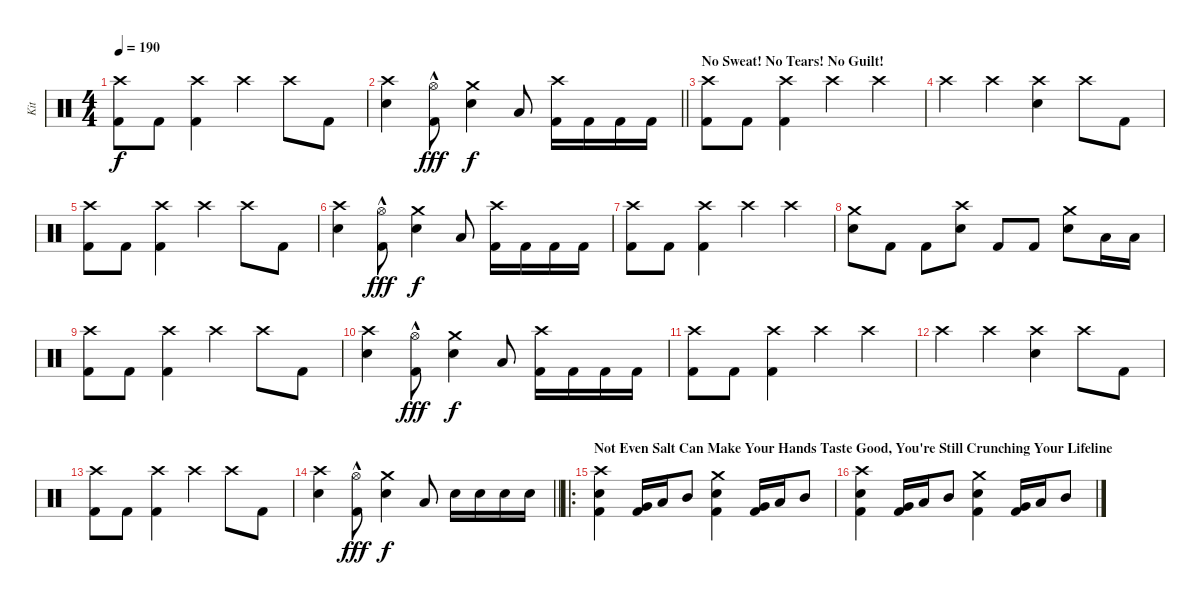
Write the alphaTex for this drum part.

\track ("Kit" "Kit") {instrument percussion}
\staff {score}
\articulation defaults
\ts (4 4)
\tempo 190
\clef neutral
\ks c
("Crash high (hit)" "Kick (hit) 2").8{dy f} "Kick (hit) 2".8 ("Crash high (hit)" "Kick (hit) 2").4 "Crash high (hit)".4 "Crash high (hit)".8 "Kick (hit) 2".8 |
\barLineRight lightlight
("Crash high (hit)" "Electric Snare (hit)").4 ("Hi-Hat (open)" "Kick (hit) 2"{hac}).8{dy fff} ("Crash medium (hit)" "Electric Snare (hit)").4{dy f} "Low Tom (hit)".8 ("Crash high (hit)" "Kick (hit) 2").16 "Kick (hit) 2".16 "Kick (hit) 2".16 "Kick (hit) 2".16 |
\section ("" "No Sweat! No Tears! No Guilt!")
("Crash high (hit)" "Kick (hit) 2").8 "Kick (hit) 2".8 ("Crash high (hit)" "Kick (hit) 2").4 "Crash high (hit)".4 "Crash high (hit)".4 |
"Crash high (hit)".4 "Crash high (hit)".4 ("Crash high (hit)" "Electric Snare (hit)").4 "Crash high (hit)".8 "Kick (hit) 2".8 |
("Crash high (hit)" "Kick (hit) 2").8 "Kick (hit) 2".8 ("Crash high (hit)" "Kick (hit) 2").4 "Crash high (hit)".4 "Crash high (hit)".8 "Kick (hit) 2".8 |
("Crash high (hit)" "Electric Snare (hit)").4 ("Hi-Hat (open)" "Kick (hit) 2"{hac}).8{dy fff} ("Crash medium (hit)" "Electric Snare (hit)").4{dy f} "Low Tom (hit)".8 ("Crash high (hit)" "Kick (hit) 2").16 "Kick (hit) 2".16 "Kick (hit) 2".16 "Kick (hit) 2".16 |
("Crash high (hit)" "Kick (hit) 2").8 "Kick (hit) 2".8 ("Crash high (hit)" "Kick (hit) 2").4 "Crash high (hit)".4 "Crash high (hit)".4 |
("Crash medium (hit)" "Electric Snare (hit)").8 "Kick (hit) 2".8 "Kick (hit) 2".8 ("Crash high (hit)" "Electric Snare (hit)").8 "Kick (hit) 2".8 "Kick (hit) 2".8 ("Crash medium (hit)" "Electric Snare (hit)").8 "Low Tom (hit)".16 "Low Tom (hit)".16 |
("Crash high (hit)" "Kick (hit) 2").8 "Kick (hit) 2".8 ("Crash high (hit)" "Kick (hit) 2").4 "Crash high (hit)".4 "Crash high (hit)".8 "Kick (hit) 2".8 |
("Crash high (hit)" "Electric Snare (hit)").4 ("Hi-Hat (open)" "Kick (hit) 2"{hac}).8{dy fff} ("Crash medium (hit)" "Electric Snare (hit)").4{dy f} "Low Tom (hit)".8 ("Crash high (hit)" "Kick (hit) 2").16 "Kick (hit) 2".16 "Kick (hit) 2".16 "Kick (hit) 2".16 |
("Crash high (hit)" "Kick (hit) 2").8 "Kick (hit) 2".8 ("Crash high (hit)" "Kick (hit) 2").4 "Crash high (hit)".4 "Crash high (hit)".4 |
"Crash high (hit)".4 "Crash high (hit)".4 ("Crash high (hit)" "Electric Snare (hit)").4 "Crash high (hit)".8 "Kick (hit) 2".8 |
("Crash high (hit)" "Kick (hit) 2").8 "Kick (hit) 2".8 ("Crash high (hit)" "Kick (hit) 2").4 "Crash high (hit)".4 "Crash high (hit)".8 "Kick (hit) 2".8 |
\barLineRight lightlight
("Crash high (hit)" "Electric Snare (hit)").4 ("Hi-Hat (open)" "Kick (hit) 2"{hac}).8{dy fff} ("Crash medium (hit)" "Electric Snare (hit)").4{dy f} "Low Tom (hit)".8 "Electric Snare (hit)".16 "Electric Snare (hit)".16 "Electric Snare (hit)".16 "Electric Snare (hit)".16 |
\ro
\section ("" "Not Even Salt Can Make Your Hands Taste Good, You're Still Crunching Your Lifeline")
("Crash high (hit)" "Electric Snare (hit)" "Kick (hit) 2").4 ("Very Low Tom (hit)" "Kick (hit) 2").16 "Low Tom (hit)".16 "Mid Tom (hit)".8 ("Crash medium (hit)" "Electric Snare (hit)" "Kick (hit) 2").4 ("Very Low Tom (hit)" "Kick (hit) 2").16 "Low Tom (hit)".16 "Mid Tom (hit)".8 |
("Crash high (hit)" "Electric Snare (hit)" "Kick (hit) 2").4 ("Very Low Tom (hit)" "Kick (hit) 2").16 "Low Tom (hit)".16 "Mid Tom (hit)".8 ("Crash medium (hit)" "Electric Snare (hit)" "Kick (hit) 2").4 ("Very Low Tom (hit)" "Kick (hit) 2").16 "Low Tom (hit)".16 "Mid Tom (hit)".8
